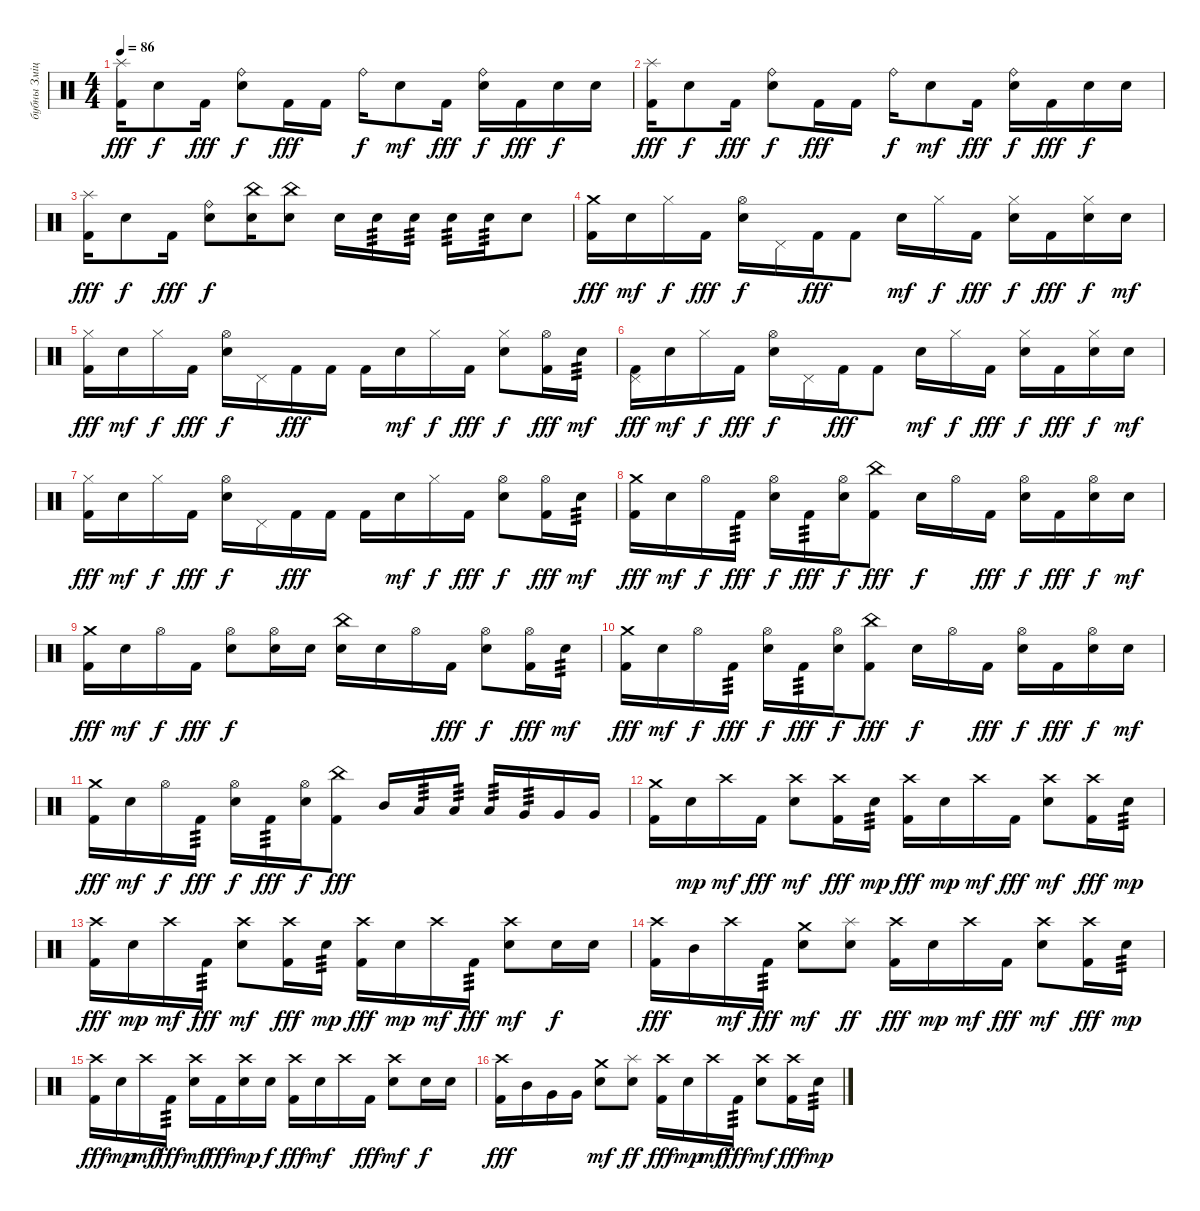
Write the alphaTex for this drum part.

\track ("бубны Змiцер" "бубны Змiц") {instrument percussion}
\staff {score}
\articulation defaults
\ts (4 4)
\tempo 86
\clef neutral
\ks c
("Splash (hit)" "Kick (hit) 2").16{dy fff} "Electric Snare (hit)".8{dy f} "Kick (hit) 2".16{dy fff} ("Ride (bell)" "Electric Snare (hit)").8{dy f} "Kick (hit) 2".16{dy fff} "Kick (hit) 2".16 "Ride (bell)".16{dy f} "Electric Snare (hit)".8{dy mf} "Kick (hit) 2".16{dy fff} ("Ride (bell)" "Electric Snare (hit)").16{dy f} "Kick (hit) 2".16{dy fff} "Electric Snare (hit)".16{dy f} "Electric Snare (hit)".16 |
("Splash (hit)" "Kick (hit) 2").16{dy fff} "Electric Snare (hit)".8{dy f} "Kick (hit) 2".16{dy fff} ("Ride (bell)" "Electric Snare (hit)").8{dy f} "Kick (hit) 2".16{dy fff} "Kick (hit) 2".16 "Ride (bell)".16{dy f} "Electric Snare (hit)".8{dy mf} "Kick (hit) 2".16{dy fff} ("Ride (bell)" "Electric Snare (hit)").16{dy f} "Kick (hit) 2".16{dy fff} "Electric Snare (hit)".16{dy f} "Electric Snare (hit)".16 |
("Splash (hit)" "Kick (hit) 2").16{dy fff} "Electric Snare (hit)".8{dy f} "Kick (hit) 2".16{dy fff} ("Ride (bell)" "Electric Snare (hit)").8{dy f} ("China (hit)" "Electric Snare (hit)").16 ("China (hit)" "Electric Snare (hit)").8 "Electric Snare (hit)".16 "Electric Snare (hit)".16{tp 3} "Electric Snare (hit)".16{tp 3} "Electric Snare (hit)".16{tp 3} "Electric Snare (hit)".16{tp 3} "Electric Snare (hit)".8 |
("Crash medium (hit)" "Kick (hit) 2").16{dy fff} "Electric Snare (hit)".16{dy mf} "Hi-Hat (closed)".16{dy f} "Kick (hit) 2".16{dy fff} ("Hi-Hat (open)" "Electric Snare (hit)").16{dy f} "Pedal Hi-Hat (hit)".16 "Kick (hit) 2".16{dy fff} "Kick (hit) 2".8 "Electric Snare (hit)".16{dy mf} "Hi-Hat (closed)".16{dy f} "Kick (hit) 2".16{dy fff} ("Hi-Hat (closed)" "Electric Snare (hit)").16{dy f} "Kick (hit) 2".16{dy fff} ("Hi-Hat (closed)" "Electric Snare (hit)").16{dy f} "Electric Snare (hit)".16{dy mf} |
("Hi-Hat (closed)" "Kick (hit) 2").16{dy fff} "Electric Snare (hit)".16{dy mf} "Hi-Hat (closed)".16{dy f} "Kick (hit) 2".16{dy fff} ("Hi-Hat (open)" "Electric Snare (hit)").16{dy f} "Pedal Hi-Hat (hit)".16 "Kick (hit) 2".16{dy fff} "Kick (hit) 2".16 "Kick (hit) 2".16 "Electric Snare (hit)".16{dy mf} "Hi-Hat (closed)".16{dy f} "Kick (hit) 2".16{dy fff} ("Hi-Hat (closed)" "Electric Snare (hit)").8{dy f} ("Hi-Hat (open)" "Kick (hit) 2").16{dy fff} "Electric Snare (hit)".16{tp 3 dy mf} |
("Pedal Hi-Hat (hit)" "Kick (hit) 2").16{dy fff} "Electric Snare (hit)".16{dy mf} "Hi-Hat (closed)".16{dy f} "Kick (hit) 2".16{dy fff} ("Hi-Hat (open)" "Electric Snare (hit)").16{dy f} "Pedal Hi-Hat (hit)".16 "Kick (hit) 2".16{dy fff} "Kick (hit) 2".8 "Electric Snare (hit)".16{dy mf} "Hi-Hat (closed)".16{dy f} "Kick (hit) 2".16{dy fff} ("Hi-Hat (closed)" "Electric Snare (hit)").16{dy f} "Kick (hit) 2".16{dy fff} ("Hi-Hat (closed)" "Electric Snare (hit)").16{dy f} "Electric Snare (hit)".16{dy mf} |
("Hi-Hat (closed)" "Kick (hit) 2").16{dy fff} "Electric Snare (hit)".16{dy mf} "Hi-Hat (closed)".16{dy f} "Kick (hit) 2".16{dy fff} ("Hi-Hat (open)" "Electric Snare (hit)").16{dy f} "Pedal Hi-Hat (hit)".16 "Kick (hit) 2".16{dy fff} "Kick (hit) 2".16 "Kick (hit) 2".16 "Electric Snare (hit)".16{dy mf} "Hi-Hat (closed)".16{dy f} "Kick (hit) 2".16{dy fff} ("Hi-Hat (open)" "Electric Snare (hit)").8{dy f} ("Hi-Hat (open)" "Kick (hit) 2").16{dy fff} "Electric Snare (hit)".16{tp 3 dy mf} |
("Crash medium (hit)" "Kick (hit) 2").16{dy fff} "Electric Snare (hit)".16{dy mf} "Hi-Hat (open)".16{dy f} "Kick (hit) 2".16{tp 3 dy fff} ("Hi-Hat (open)" "Electric Snare (hit)").16{dy f} "Kick (hit) 2".16{tp 3 dy fff} ("Hi-Hat (open)" "Electric Snare (hit)").16{dy f} ("China (hit)" "Kick (hit) 2").8{dy fff} "Electric Snare (hit)".16{dy f} "Hi-Hat (open)".16 "Kick (hit) 2".16{dy fff} ("Hi-Hat (open)" "Electric Snare (hit)").16{dy f} "Kick (hit) 2".16{dy fff} ("Hi-Hat (open)" "Electric Snare (hit)").16{dy f} "Electric Snare (hit)".16{dy mf} |
("Crash medium (hit)" "Kick (hit) 2").16{dy fff} "Electric Snare (hit)".16{dy mf} "Hi-Hat (open)".16{dy f} "Kick (hit) 2".16{dy fff} ("Hi-Hat (open)" "Electric Snare (hit)").8{dy f} ("Hi-Hat (open)" "Electric Snare (hit)").16 "Electric Snare (hit)".16 ("China (hit)" "Electric Snare (hit)").16 "Electric Snare (hit)".16 "Hi-Hat (open)".16 "Kick (hit) 2".16{dy fff} ("Hi-Hat (open)" "Electric Snare (hit)").8{dy f} ("Hi-Hat (open)" "Kick (hit) 2").16{dy fff} "Electric Snare (hit)".16{tp 3 dy mf} |
("Crash medium (hit)" "Kick (hit) 2").16{dy fff} "Electric Snare (hit)".16{dy mf} "Hi-Hat (open)".16{dy f} "Kick (hit) 2".16{tp 3 dy fff} ("Hi-Hat (open)" "Electric Snare (hit)").16{dy f} "Kick (hit) 2".16{tp 3 dy fff} ("Hi-Hat (open)" "Electric Snare (hit)").16{dy f} ("China (hit)" "Kick (hit) 2").8{dy fff} "Electric Snare (hit)".16{dy f} "Hi-Hat (open)".16 "Kick (hit) 2".16{dy fff} ("Hi-Hat (open)" "Electric Snare (hit)").16{dy f} "Kick (hit) 2".16{dy fff} ("Hi-Hat (open)" "Electric Snare (hit)").16{dy f} "Electric Snare (hit)".16{dy mf} |
("Crash medium (hit)" "Kick (hit) 2").16{dy fff} "Electric Snare (hit)".16{dy mf} "Hi-Hat (open)".16{dy f} "Kick (hit) 2".16{tp 3 dy fff} ("Hi-Hat (open)" "Electric Snare (hit)").16{dy f} "Kick (hit) 2".16{tp 3 dy fff} ("Hi-Hat (open)" "Electric Snare (hit)").16{dy f} ("China (hit)" "Kick (hit) 2").8{dy fff} "Mid Tom (hit)".16 "Low Tom (hit)".16{tp 3} "Low Tom (hit)".16{tp 3} "Low Tom (hit)".16{tp 3} "Very Low Tom (hit)".16{tp 3} "Very Low Tom (hit)".16 "Very Low Tom (hit)".16 |
("Crash medium (hit)" "Kick (hit) 2").16 "Electric Snare (hit)".16{dy mp} "Crash high (hit)".16{dy mf} "Kick (hit) 2".16{dy fff} ("Crash high (hit)" "Electric Snare (hit)").8{dy mf} ("Crash high (hit)" "Kick (hit) 2").16{dy fff} "Electric Snare (hit)".16{tp 3 dy mp} ("Crash high (hit)" "Kick (hit) 2").16{dy fff} "Electric Snare (hit)".16{dy mp} "Crash high (hit)".16{dy mf} "Kick (hit) 2".16{dy fff} ("Crash high (hit)" "Electric Snare (hit)").8{dy mf} ("Crash high (hit)" "Kick (hit) 2").16{dy fff} "Electric Snare (hit)".16{tp 3 dy mp} |
("Crash high (hit)" "Kick (hit) 2").16{dy fff} "Electric Snare (hit)".16{dy mp} "Crash high (hit)".16{dy mf} "Kick (hit) 2".16{tp 3 dy fff} ("Crash high (hit)" "Electric Snare (hit)").8{dy mf} ("Crash high (hit)" "Kick (hit) 2").16{dy fff} "Electric Snare (hit)".16{tp 3 dy mp} ("Crash high (hit)" "Kick (hit) 2").16{dy fff} "Electric Snare (hit)".16{dy mp} "Crash high (hit)".16{dy mf} "Kick (hit) 2".16{tp 3 dy fff} ("Crash high (hit)" "Electric Snare (hit)").8{dy mf} "Electric Snare (hit)".16{dy f} "Electric Snare (hit)".16 |
("Crash high (hit)" "Kick (hit) 2").16{dy fff} "Mid Tom (hit)".16 "Crash high (hit)".16{dy mf} "Kick (hit) 2".16{tp 3 dy fff} ("Crash medium (hit)" "Electric Snare (hit)").8{dy mf} ("Splash (hit)" "Electric Snare (hit)").8{dy ff} ("Crash high (hit)" "Kick (hit) 2").16{dy fff} "Electric Snare (hit)".16{dy mp} "Crash high (hit)".16{dy mf} "Kick (hit) 2".16{dy fff} ("Crash high (hit)" "Electric Snare (hit)").8{dy mf} ("Crash high (hit)" "Kick (hit) 2").16{dy fff} "Electric Snare (hit)".16{tp 3 dy mp} |
("Crash high (hit)" "Kick (hit) 2").16{dy fff} "Electric Snare (hit)".16{dy mp} "Crash high (hit)".16{dy mf} "Kick (hit) 2".16{tp 3 dy fff} ("Crash high (hit)" "Electric Snare (hit)").16{dy mf} "Kick (hit) 2".16{dy fff} ("Crash high (hit)" "Electric Snare (hit)").16{dy mp} "Electric Snare (hit)".16{dy f} ("Crash high (hit)" "Kick (hit) 2").16{dy fff} "Electric Snare (hit)".16{dy mf} "Crash high (hit)".16 "Kick (hit) 2".16{dy fff} ("Crash high (hit)" "Electric Snare (hit)").8{dy mf} "Electric Snare (hit)".16{dy f} "Electric Snare (hit)".16 |
("Crash high (hit)" "Kick (hit) 2").16{dy fff} "Mid Tom (hit)".16 "Very Low Tom (hit)".16 "Very Low Tom (hit)".16 ("Crash medium (hit)" "Electric Snare (hit)").8{dy mf} ("Splash (hit)" "Electric Snare (hit)").8{dy ff} ("Crash high (hit)" "Kick (hit) 2").16{dy fff} "Electric Snare (hit)".16{dy mp} "Crash high (hit)".16{dy mf} "Kick (hit) 2".16{tp 3 dy fff} ("Crash high (hit)" "Electric Snare (hit)").8{dy mf} ("Crash high (hit)" "Kick (hit) 2").16{dy fff} "Electric Snare (hit)".16{tp 3 dy mp}
